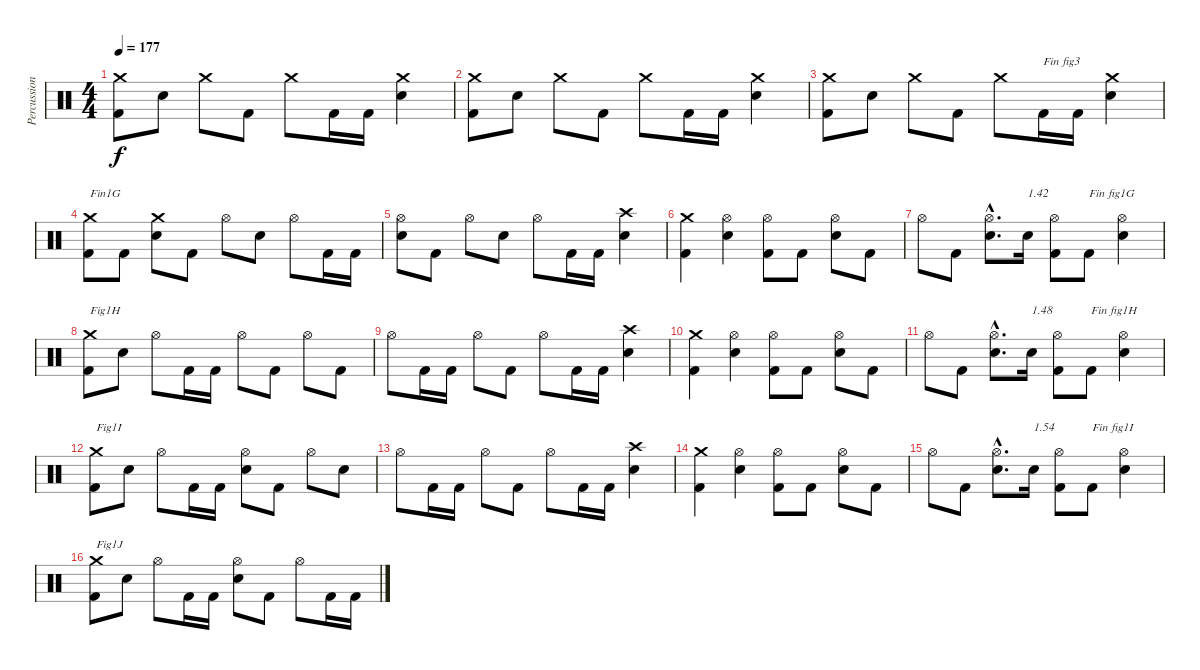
\track ("Percussions" "Percussion") {instrument percussion}
\staff {score}
\articulation defaults
\ts (4 4)
\tempo 177
\clef neutral
\ks c
("Kick (hit) 2" "Crash medium (hit)").8{dy f} "Electric Snare (hit)".8 "Crash medium (hit)".8 "Kick (hit) 2".8 "Crash medium (hit)".8 "Kick (hit) 2".16 "Kick (hit) 2".16 ("Electric Snare (hit)" "Crash medium (hit)").4 |
("Kick (hit) 2" "Crash medium (hit)").8 "Electric Snare (hit)".8 "Crash medium (hit)".8 "Kick (hit) 2".8 "Crash medium (hit)".8 "Kick (hit) 2".16 "Kick (hit) 2".16 ("Electric Snare (hit)" "Crash medium (hit)").4 |
("Kick (hit) 2" "Crash medium (hit)").8 "Electric Snare (hit)".8 "Crash medium (hit)".8 "Kick (hit) 2".8 "Crash medium (hit)".8 "Kick (hit) 2".16{txt "Fin fig3"} "Kick (hit) 2".16 ("Electric Snare (hit)" "Crash medium (hit)").4 |
("Kick (hit) 2" "Crash medium (hit)").8{txt "Fin1G"} "Kick (hit) 2".8 ("Electric Snare (hit)" "Crash medium (hit)").8 "Kick (hit) 2".8 "Hi-Hat (open)".8 "Electric Snare (hit)".8 "Hi-Hat (open)".8 "Kick (hit) 2".16 "Kick (hit) 2".16 |
("Electric Snare (hit)" "Hi-Hat (open)").8 "Kick (hit) 2".8 "Hi-Hat (open)".8 "Electric Snare (hit)".8 "Hi-Hat (open)".8 "Kick (hit) 2".16 "Kick (hit) 2".16 ("Electric Snare (hit)" "Crash high (hit)").4 |
("Kick (hit) 2" "Crash medium (hit)").4 ("Electric Snare (hit)" "Hi-Hat (open)").4 ("Kick (hit) 2" "Hi-Hat (open)").8 "Kick (hit) 2".8 ("Electric Snare (hit)" "Hi-Hat (open)").8 "Kick (hit) 2".8 |
"Hi-Hat (open)".8 "Kick (hit) 2".8 ("Electric Snare (hit)"{hac} "Hi-Hat (open)"{hac}).8{d} "Electric Snare (hit)".16{txt "1.42"} ("Kick (hit) 2" "Hi-Hat (open)").8 "Kick (hit) 2".8{txt "Fin fig1G"} ("Electric Snare (hit)" "Hi-Hat (open)").4 |
("Kick (hit) 2" "Crash medium (hit)").8{txt "Fig1H"} "Electric Snare (hit)".8 "Hi-Hat (open)".8 "Kick (hit) 2".16 "Kick (hit) 2".16 "Hi-Hat (open)".8 "Kick (hit) 2".8 "Hi-Hat (open)".8 "Kick (hit) 2".8 |
"Hi-Hat (open)".8 "Kick (hit) 2".16 "Kick (hit) 2".16 "Hi-Hat (open)".8 "Kick (hit) 2".8 "Hi-Hat (open)".8 "Kick (hit) 2".16 "Kick (hit) 2".16 ("Electric Snare (hit)" "Crash high (hit)").4 |
("Kick (hit) 2" "Crash medium (hit)").4 ("Electric Snare (hit)" "Hi-Hat (open)").4 ("Kick (hit) 2" "Hi-Hat (open)").8 "Kick (hit) 2".8 ("Electric Snare (hit)" "Hi-Hat (open)").8 "Kick (hit) 2".8 |
"Hi-Hat (open)".8 "Kick (hit) 2".8 ("Electric Snare (hit)"{hac} "Hi-Hat (open)"{hac}).8{d} "Electric Snare (hit)".16{txt "1.48"} ("Kick (hit) 2" "Hi-Hat (open)").8 "Kick (hit) 2".8{txt "Fin fig1H"} ("Electric Snare (hit)" "Hi-Hat (open)").4 |
("Kick (hit) 2" "Crash medium (hit)").8{txt "Fig1I"} "Electric Snare (hit)".8 "Hi-Hat (open)".8 "Kick (hit) 2".16 "Kick (hit) 2".16 ("Electric Snare (hit)" "Hi-Hat (open)").8 "Kick (hit) 2".8 "Hi-Hat (open)".8 "Electric Snare (hit)".8 |
"Hi-Hat (open)".8 "Kick (hit) 2".16 "Kick (hit) 2".16 "Hi-Hat (open)".8 "Kick (hit) 2".8 "Hi-Hat (open)".8 "Kick (hit) 2".16 "Kick (hit) 2".16 ("Electric Snare (hit)" "Crash high (hit)").4 |
("Kick (hit) 2" "Crash medium (hit)").4 ("Electric Snare (hit)" "Hi-Hat (open)").4 ("Kick (hit) 2" "Hi-Hat (open)").8 "Kick (hit) 2".8 ("Electric Snare (hit)" "Hi-Hat (open)").8 "Kick (hit) 2".8 |
"Hi-Hat (open)".8 "Kick (hit) 2".8 ("Electric Snare (hit)"{hac} "Hi-Hat (open)"{hac}).8{d} "Electric Snare (hit)".16{txt "1.54"} ("Kick (hit) 2" "Hi-Hat (open)").8 "Kick (hit) 2".8{txt "Fin fig1I"} ("Electric Snare (hit)" "Hi-Hat (open)").4 |
("Kick (hit) 2" "Crash medium (hit)").8{txt "Fig1J"} "Electric Snare (hit)".8 "Hi-Hat (open)".8 "Kick (hit) 2".16 "Kick (hit) 2".16 ("Electric Snare (hit)" "Hi-Hat (open)").8 "Kick (hit) 2".8 "Hi-Hat (open)".8 "Kick (hit) 2".16 "Kick (hit) 2".16
